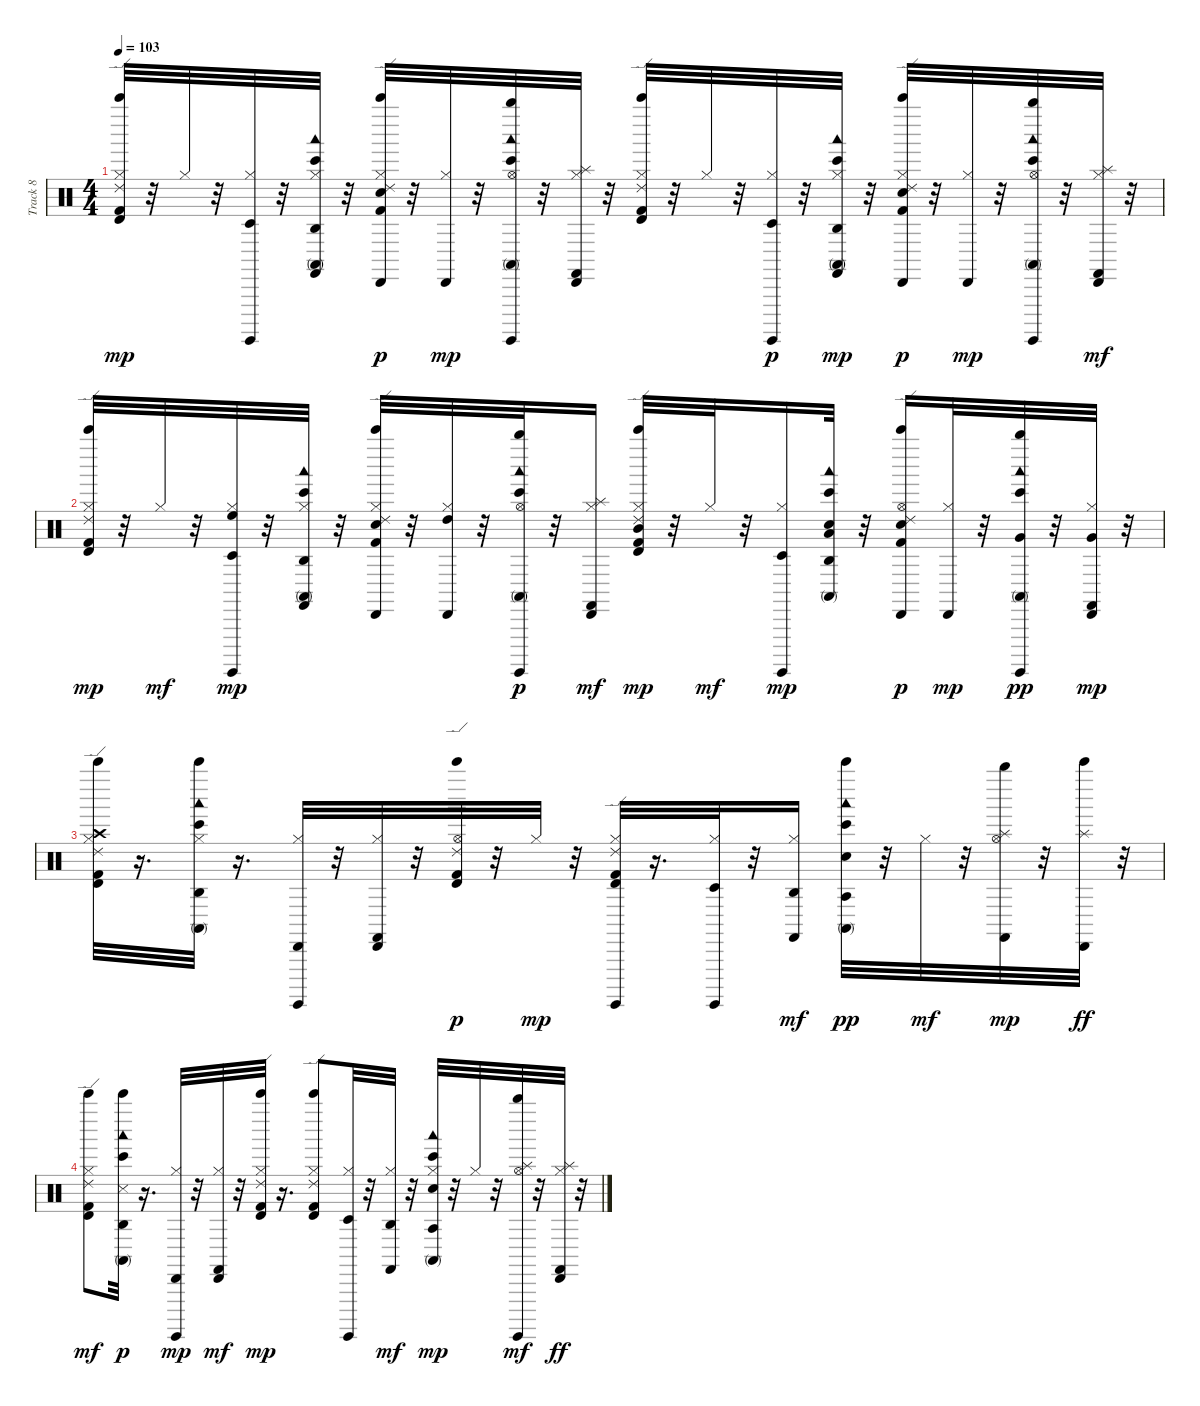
\track ("Track 8" "Track 8") {instrument percussion}
\staff {score}
\articulation defaults
\ts (4 4)
\tempo 103
\clef neutral
\ks c
("Timbale high (hit)" "Ride (edge) 2" "Kick (hit) 2" "Bell Tree (hit)" "Hi-Hat (closed)").32{dy mp} r.32 "Hi-Hat (closed)".32 r.32 ("Timbale low (hit)" "Surdo (hit)" "Hi-Hat (closed)").32 r.32 ("Agogo high (hit)" "Bongo High (hit)" "Conga high (mute)" "Woodblock low (hit)" "Castanets (hit)" "Hi-Hat (closed)").32 r.32 ("Cabasa (hit)" "Ride (edge) 2" "Kick (hit) 2" "Electric Snare (hit)" "Bell Tree (hit)" "Hi-Hat (closed)").32{dy p} r.32 ("Cabasa (hit)" "Hi-Hat (closed)").32{dy mp} r.32 ("Whistle high (hit)" "Bongo High (hit)" "Conga high (mute)" "Woodblock low (hit)" "Surdo (hit)" "Hi-Hat (open)").32 r.32 ("Cabasa (hit)" "Castanets (hit)" "Hi-Hat (closed)" "Splash (hit)").32 r.32 ("Timbale high (hit)" "Ride (edge) 2" "Kick (hit) 2" "Bell Tree (hit)" "Hi-Hat (closed)").32 r.32 "Hi-Hat (closed)".32 r.32 ("Timbale low (hit)" "Surdo (hit)" "Hi-Hat (closed)").32{dy p} r.32 ("Agogo high (hit)" "Bongo High (hit)" "Conga high (mute)" "Woodblock low (hit)" "Castanets (hit)" "Hi-Hat (closed)").32{dy mp} r.32 ("Cabasa (hit)" "Ride (edge) 2" "Kick (hit) 2" "Electric Snare (hit)" "Bell Tree (hit)" "Hi-Hat (closed)").32{dy p} r.32 ("Cabasa (hit)" "Hi-Hat (closed)").32{dy mp} r.32 ("Whistle high (hit)" "Bongo High (hit)" "Conga high (mute)" "Woodblock low (hit)" "Surdo (hit)" "Hi-Hat (open)").32 r.32 ("Cabasa (hit)" "Castanets (hit)" "Hi-Hat (closed)" "Splash (hit)").32{dy mf} r.32 |
("Timbale high (hit)" "Ride (edge) 2" "Kick (hit) 2" "Bell Tree (hit)" "Hi-Hat (closed)").32{dy mp} r.32 "Hi-Hat (closed)".32{dy mf} r.32 ("Timbale low (hit)" "High Floor Tom (hit)" "Surdo (hit)" "Hi-Hat (closed)").32{dy mp} r.32 ("Agogo high (hit)" "Bongo High (hit)" "Conga high (mute)" "Woodblock low (hit)" "Castanets (hit)" "Hi-Hat (closed)").32 r.32 ("Cabasa (hit)" "Ride (edge) 2" "Kick (hit) 2" "Electric Snare (hit)" "Bell Tree (hit)" "Hi-Hat (closed)").32 r.32 ("Cabasa (hit)" "High Tom (hit)" "Hi-Hat (closed)").32 r.32 ("Whistle high (hit)" "Bongo High (hit)" "Conga high (mute)" "Woodblock low (hit)" "Surdo (hit)" "Hi-Hat (open)").32{dy p} r.32 ("Cabasa (hit)" "Castanets (hit)" "Hi-Hat (closed)" "Splash (hit)").16{dy mf} ("Timbale high (hit)" "Ride (edge) 2" "Kick (hit) 2" "Mid Tom (hit)" "Bell Tree (hit)" "Hi-Hat (closed)").32{dy mp} r.32 "Hi-Hat (closed)".32{dy mf} r.32 ("Timbale low (hit)" "Surdo (hit)" "Hi-Hat (closed)").16{dy mp} ("Agogo high (hit)" "Bongo High (hit)" "Conga high (mute)" "Electric Snare (hit)" "Woodblock low (hit)" "Low Tom (hit)").32 r.32 ("Cabasa (hit)" "Ride (edge) 2" "Kick (hit) 2" "Electric Snare (hit)" "Bell Tree (hit)" "Hi-Hat (open)").16{dy p} ("Cabasa (hit)" "Hi-Hat (closed)").32{dy mp} r.32 ("Whistle high (hit)" "Conga high (mute)" "Bongo High (hit)" "Woodblock low (hit)" "Very Low Tom (hit)" "Surdo (hit)").32{dy pp} r.32 ("Cabasa (hit)" "Very Low Tom (hit)" "Castanets (hit)" "Hi-Hat (closed)").32{dy mp} r.32 |
("Timbale high (hit)" "Ride (edge) 2" "Kick (hit) 2" "Crash high (hit)" "Bell Tree (hit)" "Hi-Hat (closed)").32 r.16{d} ("Agogo high (hit)" "Bongo High (hit)" "Conga high (mute)" "Woodblock low (hit)" "Bell Tree (hit)" "Hi-Hat (closed)").32 r.16{d} ("Cabasa (hit)" "Surdo (hit)" "Hi-Hat (closed)").32 r.32 ("Cabasa (hit)" "Castanets (hit)" "Hi-Hat (closed)").32 r.32 ("Timbale high (hit)" "Ride (edge) 2" "Kick (hit) 2" "Hi-Hat (open)" "Bell Tree (hit)").32{dy p} r.32 "Hi-Hat (closed)".32{dy mp} r.32 ("Timbale high (hit)" "Ride (edge) 2" "Kick (hit) 2" "Surdo (hit)" "Hi-Hat (closed)").32 r.16{d} ("Timbale low (hit)" "Surdo (hit)" "Hi-Hat (closed)").32 r.32 ("Agogo high (hit)" "Castanets (hit)" "Hi-Hat (closed)").16{dy mf} ("Agogo tow (hit)" "Bongo High (hit)" "Conga high (mute)" "Electric Snare (hit)" "Woodblock low (hit)" "Bell Tree (hit)").32{dy pp} r.32 "Hi-Hat (closed)".32{dy mf} r.32 ("Whistle high (hit)" "Castanets (hit)" "Hi-Hat (open)" "Splash (hit)").32{dy mp} r.32 ("Cabasa (hit)" "Bell Tree (hit)" "Splash (hit)").32{dy ff} r.32 |
("Timbale high (hit)" "Ride (edge) 2" "Kick (hit) 2" "Bell Tree (hit)" "Hi-Hat (closed)").8{dy mf} ("Agogo high (hit)" "Bongo High (hit)" "Conga high (mute)" "Snare (side stick) 3" "Woodblock low (hit)" "Bell Tree (hit)").32{dy p} r.16{d} ("Cabasa (hit)" "Surdo (hit)" "Hi-Hat (closed)").32{dy mp} r.32 ("Cabasa (hit)" "Castanets (hit)" "Hi-Hat (closed)").32{dy mf} r.32 ("Timbale high (hit)" "Ride (edge) 2" "Kick (hit) 2" "Bell Tree (hit)" "Hi-Hat (closed)").32{dy mp} r.16{d} ("Timbale high (hit)" "Ride (edge) 2" "Kick (hit) 2" "Bell Tree (hit)" "Hi-Hat (closed)").8 ("Timbale low (hit)" "Surdo (hit)" "Hi-Hat (closed)").32 r.32 ("Agogo high (hit)" "Castanets (hit)" "Hi-Hat (closed)").32{dy mf} r.32 ("Agogo tow (hit)" "Bongo High (hit)" "Conga high (mute)" "Electric Snare (hit)" "Woodblock low (hit)" "Hi-Hat (closed)").32{dy mp} r.32 "Hi-Hat (closed)".32 r.32 ("Whistle high (hit)" "Surdo (hit)" "Hi-Hat (open)" "Splash (hit)").32{dy mf} r.32 ("Cabasa (hit)" "Castanets (hit)" "Hi-Hat (closed)" "Splash (hit)").32{dy ff} r.32
